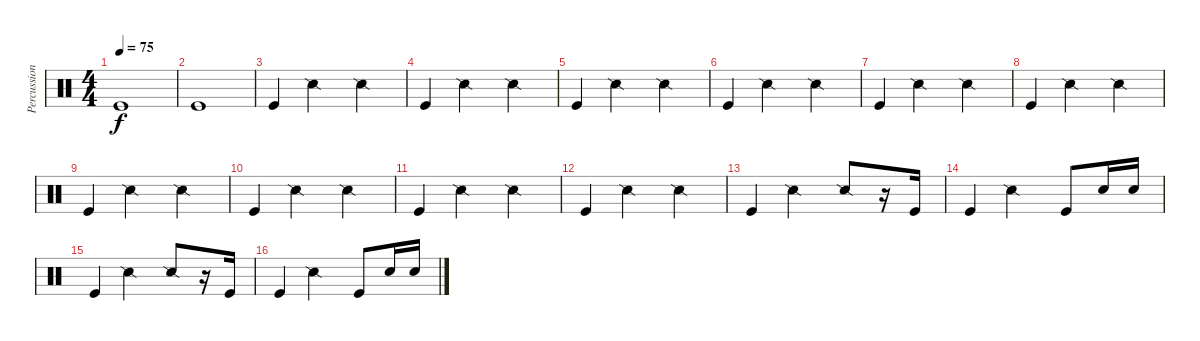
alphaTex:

\track ("Percussioni" "Percussion") {instrument percussion}
\staff {score}
\articulation defaults
\ts (4 4)
\tempo 75
\clef neutral
\ks c "Kick (hit)".1{dy f}
|
"Kick (hit)".1 |
"Kick (hit)".4 "Snare (side stick) 2".2 "Snare (side stick) 2".4 |
"Kick (hit)".4 "Snare (side stick) 2".2 "Snare (side stick) 2".4 |
"Kick (hit)".4 "Snare (side stick) 2".2 "Snare (side stick) 2".4 |
"Kick (hit)".4 "Snare (side stick) 2".2 "Snare (side stick) 2".4 |
"Kick (hit)".4 "Snare (side stick) 2".2 "Snare (side stick) 2".4 |
"Kick (hit)".4 "Snare (side stick) 2".2 "Snare (side stick) 2".4 |
"Kick (hit)".4 "Snare (side stick) 2".2 "Snare (side stick) 2".4 |
"Kick (hit)".4 "Snare (side stick) 2".2 "Snare (side stick) 2".4 |
"Kick (hit)".4 "Snare (side stick) 2".2 "Snare (side stick) 2".4 |
"Kick (hit)".4 "Snare (side stick) 2".2 "Snare (side stick) 2".4 |
"Kick (hit)".4 "Snare (side stick) 2".2 "Snare (side stick) 2".8 r.16 "Kick (hit)".16 |
"Kick (hit)".4 "Snare (side stick) 2".2 "Kick (hit)".8 "Snare (hit) 2".16 "Snare (hit) 2".16 |
"Kick (hit)".4 "Snare (side stick) 2".2 "Snare (side stick) 2".8 r.16 "Kick (hit)".16 |
"Kick (hit)".4 "Snare (side stick) 2".2 "Kick (hit)".8 "Snare (hit) 2".16 "Snare (hit) 2".16
